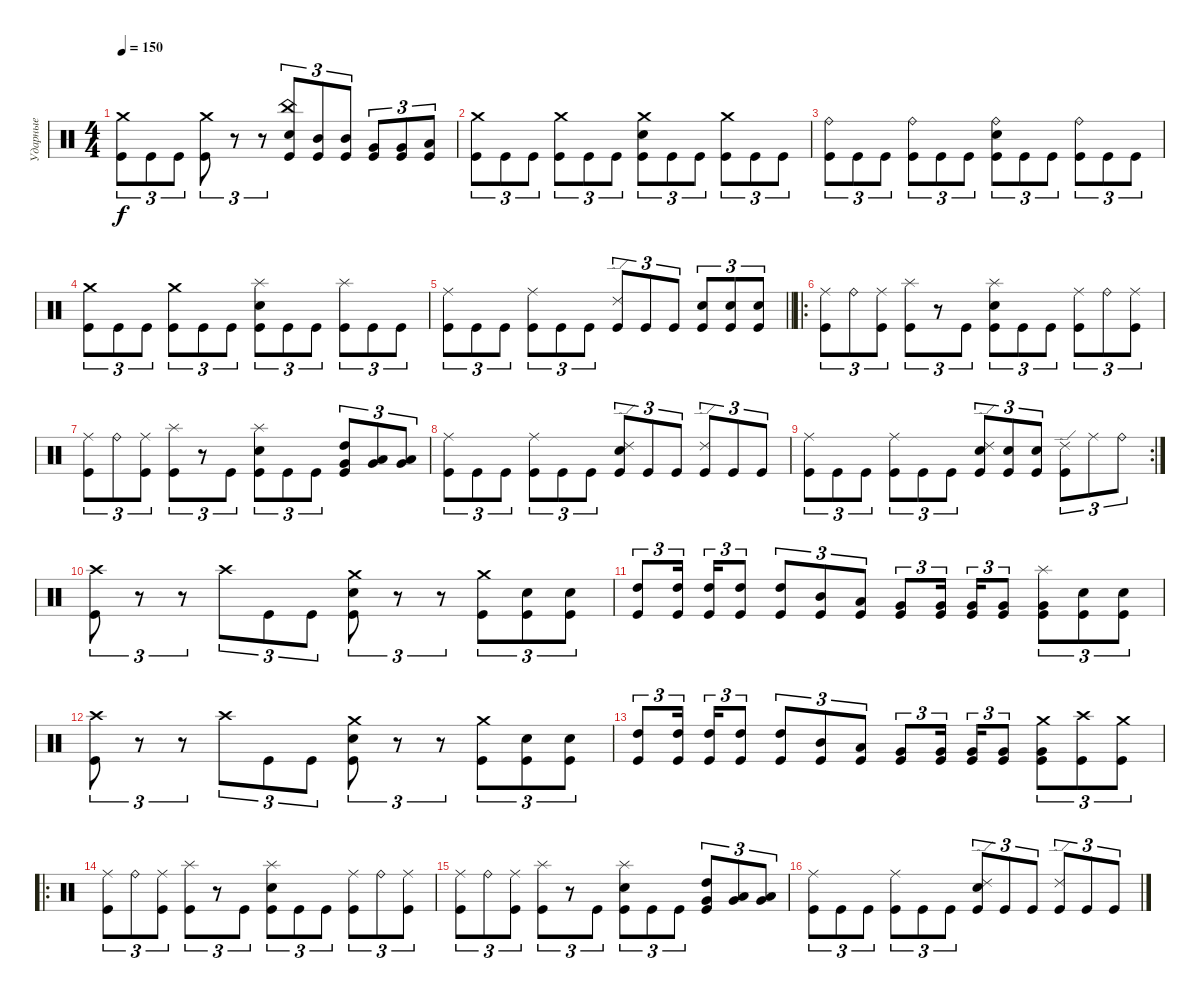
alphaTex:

\track ("Ударные" "Ударные") {instrument percussion}
\staff {score}
\articulation defaults
\ts (4 4)
\tempo 150
\clef neutral
\ks c
("Crash medium (hit)" "Kick (hit)").8{tu (3 2) dy f} "Kick (hit)".8{tu (3 2)} "Kick (hit)".8{tu (3 2)} ("Crash medium (hit)" "Kick (hit)").8{tu (3 2)} r.8{tu (3 2)} r.8{tu (3 2)} ("China (hit)" "Electric Snare (hit)" "Kick (hit)").8{tu (3 2)} ("Mid Tom (hit)" "Kick (hit)").8{tu (3 2)} ("Mid Tom (hit)" "Kick (hit)").8{tu (3 2)} ("Very Low Tom (hit)" "Kick (hit)").8{tu (3 2)} ("Very Low Tom (hit)" "Kick (hit)").8{tu (3 2)} ("Low Floor Tom (hit)" "Kick (hit)").8{tu (3 2)} |
("Crash medium (hit)" "Kick (hit)").8{tu (3 2)} "Kick (hit)".8{tu (3 2)} "Kick (hit)".8{tu (3 2)} ("Crash medium (hit)" "Kick (hit)").8{tu (3 2)} "Kick (hit)".8{tu (3 2)} "Kick (hit)".8{tu (3 2)} ("Crash medium (hit)" "Electric Snare (hit)" "Kick (hit)").8{tu (3 2)} "Kick (hit)".8{tu (3 2)} "Kick (hit)".8{tu (3 2)} ("Crash medium (hit)" "Kick (hit)").8{tu (3 2)} "Kick (hit)".8{tu (3 2)} "Kick (hit)".8{tu (3 2)} |
("Ride (bell)" "Kick (hit)").8{tu (3 2)} "Kick (hit)".8{tu (3 2)} "Kick (hit)".8{tu (3 2)} ("Ride (bell)" "Kick (hit)").8{tu (3 2)} "Kick (hit)".8{tu (3 2)} "Kick (hit)".8{tu (3 2)} ("Ride (bell)" "Electric Snare (hit)" "Kick (hit)").8{tu (3 2)} "Kick (hit)".8{tu (3 2)} "Kick (hit)".8{tu (3 2)} ("Ride (bell)" "Kick (hit)").8{tu (3 2)} "Kick (hit)".8{tu (3 2)} "Kick (hit)".8{tu (3 2)} |
("Crash medium (hit)" "Kick (hit)").8{tu (3 2)} "Kick (hit)".8{tu (3 2)} "Kick (hit)".8{tu (3 2)} ("Crash medium (hit)" "Kick (hit)").8{tu (3 2)} "Kick (hit)".8{tu (3 2)} "Kick (hit)".8{tu (3 2)} ("Splash (hit)" "Electric Snare (hit)" "Kick (hit)").8{tu (3 2)} "Kick (hit)".8{tu (3 2)} "Kick (hit)".8{tu (3 2)} ("Splash (hit)" "Kick (hit)").8{tu (3 2)} "Kick (hit)".8{tu (3 2)} "Kick (hit)".8{tu (3 2)} |
\barLineRight lightlight
("Ride (middle)" "Kick (hit)").8{tu (3 2)} "Kick (hit)".8{tu (3 2)} "Kick (hit)".8{tu (3 2)} ("Ride (middle)" "Kick (hit)").8{tu (3 2)} "Kick (hit)".8{tu (3 2)} "Kick (hit)".8{tu (3 2)} ("Ride (edge) 2" "Kick (hit)").8{tu (3 2)} "Kick (hit)".8{tu (3 2)} "Kick (hit)".8{tu (3 2)} ("Electric Snare (hit)" "Kick (hit)").8{tu (3 2)} ("Electric Snare (hit)" "Kick (hit)").8{tu (3 2)} ("Electric Snare (hit)" "Kick (hit)").8{tu (3 2)} |
\ro
\section ("" " ")
("Kick (hit)" "Ride (middle)").8{tu (3 2)} "Ride (bell)".8{tu (3 2)} ("Kick (hit)" "Ride (middle)").8{tu (3 2)} ("Kick (hit)" "Splash (hit)").8{tu (3 2)} r.8{tu (3 2)} "Kick (hit)".8{tu (3 2)} ("Electric Snare (hit)" "Kick (hit)" "Splash (hit)").8{tu (3 2)} "Kick (hit)".8{tu (3 2)} "Kick (hit)".8{tu (3 2)} ("Kick (hit)" "Ride (middle)").8{tu (3 2)} "Ride (bell)".8{tu (3 2)} ("Kick (hit)" "Ride (middle)").8{tu (3 2)} |
("Kick (hit)" "Ride (middle)").8{tu (3 2)} "Ride (bell)".8{tu (3 2)} ("Kick (hit)" "Ride (middle)").8{tu (3 2)} ("Kick (hit)" "Splash (hit)").8{tu (3 2)} r.8{tu (3 2)} "Kick (hit)".8{tu (3 2)} ("Electric Snare (hit)" "Kick (hit)" "Splash (hit)").8{tu (3 2)} "Kick (hit)".8{tu (3 2)} "Kick (hit)".8{tu (3 2)} ("Kick (hit)" "High Tom (hit)" "Very Low Tom (hit)").8{tu (3 2)} ("Low Tom (hit)" "Very Low Tom (hit)").8{tu (3 2)} ("Very Low Tom (hit)" "Low Floor Tom (hit)").8{tu (3 2)} |
("Ride (middle)" "Kick (hit)").8{tu (3 2)} "Kick (hit)".8{tu (3 2)} "Kick (hit)".8{tu (3 2)} ("Ride (middle)" "Kick (hit)").8{tu (3 2)} "Kick (hit)".8{tu (3 2)} "Kick (hit)".8{tu (3 2)} ("Ride (edge) 2" "Electric Snare (hit)" "Kick (hit)").8{tu (3 2)} "Kick (hit)".8{tu (3 2)} "Kick (hit)".8{tu (3 2)} ("Ride (edge) 2" "Kick (hit)").8{tu (3 2)} "Kick (hit)".8{tu (3 2)} "Kick (hit)".8{tu (3 2)} |
\rc 2
("Ride (middle)" "Kick (hit)").8{tu (3 2)} "Kick (hit)".8{tu (3 2)} "Kick (hit)".8{tu (3 2)} ("Ride (middle)" "Kick (hit)").8{tu (3 2)} "Kick (hit)".8{tu (3 2)} "Kick (hit)".8{tu (3 2)} ("Ride (edge) 2" "Electric Snare (hit)" "Kick (hit)").8{tu (3 2)} ("Electric Snare (hit)" "Kick (hit)").8{tu (3 2)} ("Electric Snare (hit)" "Kick (hit)").8{tu (3 2)} ("Ride (edge) 2" "Kick (hit)").8{tu (3 2)} "Ride (middle)".8{tu (3 2)} "Ride (bell)".8{tu (3 2)} |
("Crash high (hit)" "Kick (hit)").8{tu (3 2)} r.8{tu (3 2)} r.8{tu (3 2)} "Crash high (hit)".8{tu (3 2)} "Kick (hit)".8{tu (3 2)} "Kick (hit)".8{tu (3 2)} ("Crash medium (hit)" "Electric Snare (hit)" "Kick (hit)").8{tu (3 2)} r.8{tu (3 2)} r.8{tu (3 2)} ("Crash medium (hit)" "Kick (hit)").8{tu (3 2)} ("Electric Snare (hit)" "Kick (hit)").8{tu (3 2)} ("Electric Snare (hit)" "Kick (hit)").8{tu (3 2)} |
("High Tom (hit)" "Kick (hit)").8{tu (3 2)} ("High Tom (hit)" "Kick (hit)").16{tu (3 2) beam splitsecondary} ("High Tom (hit)" "Kick (hit)").16{tu (3 2)} ("High Tom (hit)" "Kick (hit)").8{tu (3 2)} ("High Tom (hit)" "Kick (hit)").8{tu (3 2)} ("Mid Tom (hit)" "Kick (hit)").8{tu (3 2)} ("Low Tom (hit)" "Kick (hit)").8{tu (3 2)} ("Very Low Tom (hit)" "Kick (hit)").8{tu (3 2)} ("Very Low Tom (hit)" "Kick (hit)").16{tu (3 2) beam splitsecondary} ("Very Low Tom (hit)" "Kick (hit)").16{tu (3 2)} ("Very Low Tom (hit)" "Kick (hit)").8{tu (3 2)} ("Very Low Tom (hit)" "Splash (hit)" "Kick (hit)").8{tu (3 2)} ("Electric Snare (hit)" "Kick (hit)").8{tu (3 2)} ("Electric Snare (hit)" "Kick (hit)").8{tu (3 2)} |
("Crash high (hit)" "Kick (hit)").8{tu (3 2)} r.8{tu (3 2)} r.8{tu (3 2)} "Crash high (hit)".8{tu (3 2)} "Kick (hit)".8{tu (3 2)} "Kick (hit)".8{tu (3 2)} ("Crash medium (hit)" "Electric Snare (hit)" "Kick (hit)").8{tu (3 2)} r.8{tu (3 2)} r.8{tu (3 2)} ("Crash medium (hit)" "Kick (hit)").8{tu (3 2)} ("Electric Snare (hit)" "Kick (hit)").8{tu (3 2)} ("Electric Snare (hit)" "Kick (hit)").8{tu (3 2)} |
("High Tom (hit)" "Kick (hit)").8{tu (3 2)} ("High Tom (hit)" "Kick (hit)").16{tu (3 2) beam splitsecondary} ("High Tom (hit)" "Kick (hit)").16{tu (3 2)} ("High Tom (hit)" "Kick (hit)").8{tu (3 2)} ("High Tom (hit)" "Kick (hit)").8{tu (3 2)} ("Mid Tom (hit)" "Kick (hit)").8{tu (3 2)} ("Low Tom (hit)" "Kick (hit)").8{tu (3 2)} ("Very Low Tom (hit)" "Kick (hit)").8{tu (3 2)} ("Very Low Tom (hit)" "Kick (hit)").16{tu (3 2) beam splitsecondary} ("Very Low Tom (hit)" "Kick (hit)").16{tu (3 2)} ("Very Low Tom (hit)" "Kick (hit)").8{tu (3 2)} ("Very Low Tom (hit)" "Crash medium (hit)" "Kick (hit)").8{tu (3 2)} ("Crash high (hit)" "Kick (hit)").8{tu (3 2)} ("Crash medium (hit)" "Kick (hit)").8{tu (3 2)} |
\ro
("Kick (hit)" "Ride (middle)").8{tu (3 2)} "Ride (bell)".8{tu (3 2)} ("Kick (hit)" "Ride (middle)").8{tu (3 2)} ("Kick (hit)" "Splash (hit)").8{tu (3 2)} r.8{tu (3 2)} "Kick (hit)".8{tu (3 2)} ("Electric Snare (hit)" "Kick (hit)" "Splash (hit)").8{tu (3 2)} "Kick (hit)".8{tu (3 2)} "Kick (hit)".8{tu (3 2)} ("Kick (hit)" "Ride (middle)").8{tu (3 2)} "Ride (bell)".8{tu (3 2)} ("Kick (hit)" "Ride (middle)").8{tu (3 2)} |
("Kick (hit)" "Ride (middle)").8{tu (3 2)} "Ride (bell)".8{tu (3 2)} ("Kick (hit)" "Ride (middle)").8{tu (3 2)} ("Kick (hit)" "Splash (hit)").8{tu (3 2)} r.8{tu (3 2)} "Kick (hit)".8{tu (3 2)} ("Electric Snare (hit)" "Kick (hit)" "Splash (hit)").8{tu (3 2)} "Kick (hit)".8{tu (3 2)} "Kick (hit)".8{tu (3 2)} ("Kick (hit)" "High Tom (hit)" "Very Low Tom (hit)").8{tu (3 2)} ("Low Tom (hit)" "Very Low Tom (hit)").8{tu (3 2)} ("Very Low Tom (hit)" "Low Floor Tom (hit)").8{tu (3 2)} |
("Ride (middle)" "Kick (hit)").8{tu (3 2)} "Kick (hit)".8{tu (3 2)} "Kick (hit)".8{tu (3 2)} ("Ride (middle)" "Kick (hit)").8{tu (3 2)} "Kick (hit)".8{tu (3 2)} "Kick (hit)".8{tu (3 2)} ("Ride (edge) 2" "Electric Snare (hit)" "Kick (hit)").8{tu (3 2)} "Kick (hit)".8{tu (3 2)} "Kick (hit)".8{tu (3 2)} ("Ride (edge) 2" "Kick (hit)").8{tu (3 2)} "Kick (hit)".8{tu (3 2)} "Kick (hit)".8{tu (3 2)}
